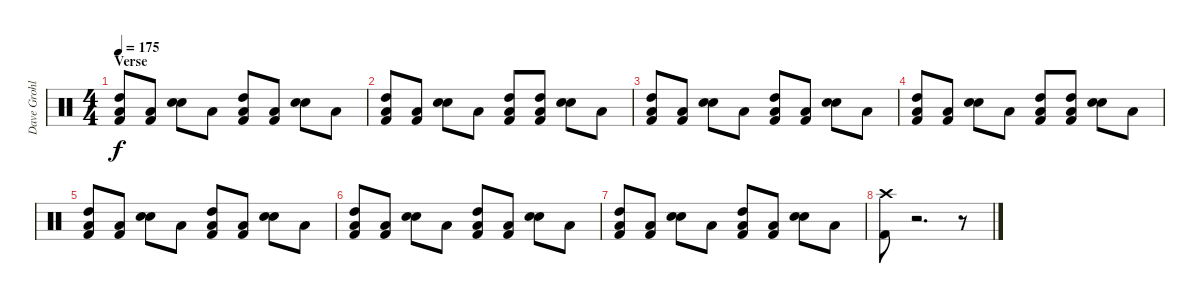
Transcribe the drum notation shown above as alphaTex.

\track ("Dave Grohl" "Dave Grohl") {solo instrument percussion}
\staff {score}
\articulation defaults
\ts (4 4)
\section ("" "Verse")
\tempo 175
\clef neutral
\ks c
("High Tom (hit)" "Low Tom (hit)" "Kick (hit) 2").8{dy f} ("Low Tom (hit)" "Kick (hit) 2").8 ("Electric Snare (hit)" "Electric Snare (hit)").8 "Low Tom (hit)".8 ("High Tom (hit)" "Low Tom (hit)" "Kick (hit) 2").8 ("Low Tom (hit)" "Kick (hit) 2").8 ("Electric Snare (hit)" "Electric Snare (hit)").8 "Low Tom (hit)".8 |
("High Tom (hit)" "Low Tom (hit)" "Kick (hit) 2").8 ("Low Tom (hit)" "Kick (hit) 2").8 ("Electric Snare (hit)" "Electric Snare (hit)").8 "Low Tom (hit)".8 ("High Tom (hit)" "Low Tom (hit)" "Kick (hit) 2").8 ("High Tom (hit)" "Low Tom (hit)" "Kick (hit) 2").8 ("Electric Snare (hit)" "Electric Snare (hit)").8 "Low Tom (hit)".8 |
("High Tom (hit)" "Low Tom (hit)" "Kick (hit) 2").8 ("Low Tom (hit)" "Kick (hit) 2").8 ("Electric Snare (hit)" "Electric Snare (hit)").8 "Low Tom (hit)".8 ("High Tom (hit)" "Low Tom (hit)" "Kick (hit) 2").8 ("Low Tom (hit)" "Kick (hit) 2").8 ("Electric Snare (hit)" "Electric Snare (hit)").8 "Low Tom (hit)".8 |
("High Tom (hit)" "Low Tom (hit)" "Kick (hit) 2").8 ("Low Tom (hit)" "Kick (hit) 2").8 ("Electric Snare (hit)" "Electric Snare (hit)").8 "Low Tom (hit)".8 ("High Tom (hit)" "Low Tom (hit)" "Kick (hit) 2").8 ("High Tom (hit)" "Low Tom (hit)" "Kick (hit) 2").8 ("Electric Snare (hit)" "Electric Snare (hit)").8 "Low Tom (hit)".8 |
("High Tom (hit)" "Low Tom (hit)" "Kick (hit) 2").8 ("Low Tom (hit)" "Kick (hit) 2").8 ("Electric Snare (hit)" "Electric Snare (hit)").8 "Low Tom (hit)".8 ("High Tom (hit)" "Low Tom (hit)" "Kick (hit) 2").8 ("Low Tom (hit)" "Kick (hit) 2").8 ("Electric Snare (hit)" "Electric Snare (hit)").8 "Low Tom (hit)".8 |
("High Tom (hit)" "Low Tom (hit)" "Kick (hit) 2").8 ("Low Tom (hit)" "Kick (hit) 2").8 ("Electric Snare (hit)" "Electric Snare (hit)").8 "Low Tom (hit)".8 ("High Tom (hit)" "Low Tom (hit)" "Kick (hit) 2").8 ("Low Tom (hit)" "Kick (hit) 2").8 ("Electric Snare (hit)" "Electric Snare (hit)").8 "Low Tom (hit)".8 |
("High Tom (hit)" "Low Tom (hit)" "Kick (hit) 2").8 ("Low Tom (hit)" "Kick (hit) 2").8 ("Electric Snare (hit)" "Electric Snare (hit)").8 "Low Tom (hit)".8 ("High Tom (hit)" "Low Tom (hit)" "Kick (hit) 2").8 ("Low Tom (hit)" "Kick (hit) 2").8 ("Electric Snare (hit)" "Electric Snare (hit)").8 "Low Tom (hit)".8 |
("Crash high (hit)" "Kick (hit) 2").8 r.2{d} r.8
